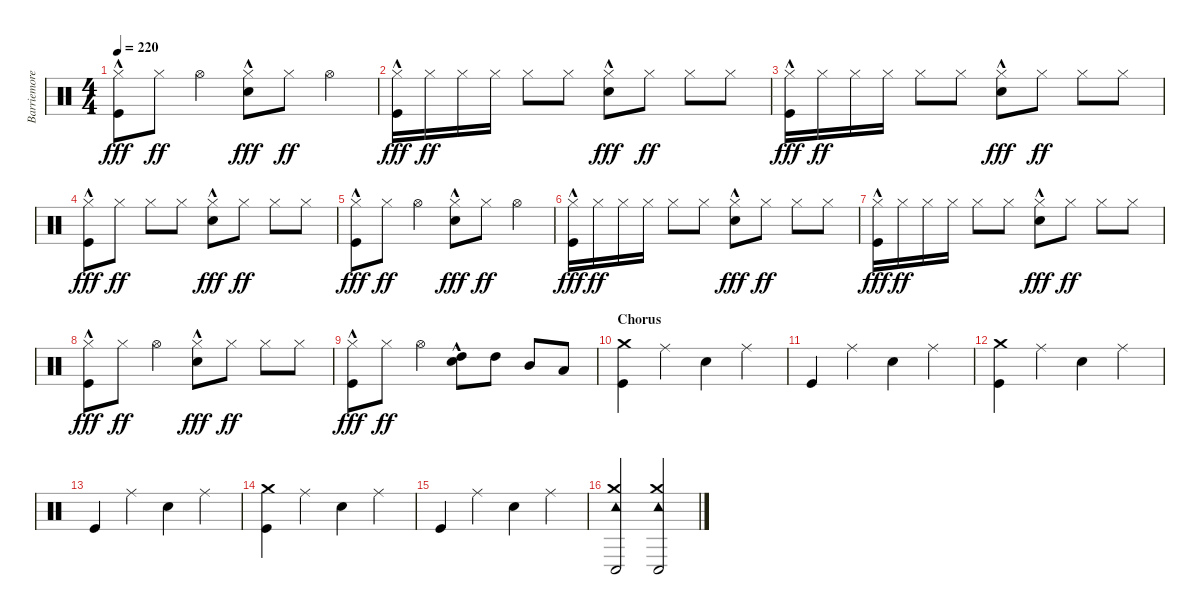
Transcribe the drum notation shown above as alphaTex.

\track ("Barriemore Barlow (Drums)" "Barriemore") {instrument percussion}
\staff {score}
\articulation defaults
\ts (4 4)
\tempo 220
\clef neutral
\ks c
("Kick (hit)"{hac} "Hi-Hat (closed)").8{dy fff} "Hi-Hat (closed)".8{dy ff} "Hi-Hat (open)".4 ("Snare (hit) 2"{hac} "Hi-Hat (closed)").8{dy fff} "Hi-Hat (closed)".8{dy ff} "Hi-Hat (open)".4 |
("Kick (hit)"{hac} "Hi-Hat (closed)").16{dy fff} "Hi-Hat (closed)".16{dy ff} "Hi-Hat (closed)".16 "Hi-Hat (closed)".16 "Hi-Hat (closed)".8 "Hi-Hat (closed)".8 ("Snare (hit) 2"{hac} "Hi-Hat (closed)").8{dy fff} "Hi-Hat (closed)".8{dy ff} "Hi-Hat (closed)".8 "Hi-Hat (closed)".8 |
("Kick (hit)"{hac} "Hi-Hat (closed)").16{dy fff} "Hi-Hat (closed)".16{dy ff} "Hi-Hat (closed)".16 "Hi-Hat (closed)".16 "Hi-Hat (closed)".8 "Hi-Hat (closed)".8 ("Snare (hit) 2"{hac} "Hi-Hat (closed)").8{dy fff} "Hi-Hat (closed)".8{dy ff} "Hi-Hat (closed)".8 "Hi-Hat (closed)".8 |
("Kick (hit)"{hac} "Hi-Hat (closed)").8{dy fff} "Hi-Hat (closed)".8{dy ff} "Hi-Hat (closed)".8 "Hi-Hat (closed)".8 ("Snare (hit) 2"{hac} "Hi-Hat (closed)").8{dy fff} "Hi-Hat (closed)".8{dy ff} "Hi-Hat (closed)".8 "Hi-Hat (closed)".8 |
("Kick (hit)"{hac} "Hi-Hat (closed)").8{dy fff} "Hi-Hat (closed)".8{dy ff} "Hi-Hat (open)".4 ("Snare (hit) 2"{hac} "Hi-Hat (closed)").8{dy fff} "Hi-Hat (closed)".8{dy ff} "Hi-Hat (open)".4 |
("Kick (hit)"{hac} "Hi-Hat (closed)").16{dy fff} "Hi-Hat (closed)".16{dy ff} "Hi-Hat (closed)".16 "Hi-Hat (closed)".16 "Hi-Hat (closed)".8 "Hi-Hat (closed)".8 ("Snare (hit) 2"{hac} "Hi-Hat (closed)").8{dy fff} "Hi-Hat (closed)".8{dy ff} "Hi-Hat (closed)".8 "Hi-Hat (closed)".8 |
("Kick (hit)"{hac} "Hi-Hat (closed)").16{dy fff} "Hi-Hat (closed)".16{dy ff} "Hi-Hat (closed)".16 "Hi-Hat (closed)".16 "Hi-Hat (closed)".8 "Hi-Hat (closed)".8 ("Snare (hit) 2"{hac} "Hi-Hat (closed)").8{dy fff} "Hi-Hat (closed)".8{dy ff} "Hi-Hat (closed)".8 "Hi-Hat (closed)".8 |
("Kick (hit)"{hac} "Hi-Hat (closed)").8{dy fff} "Hi-Hat (closed)".8{dy ff} "Hi-Hat (open)".4 ("Snare (hit) 2"{hac} "Hi-Hat (closed)").8{dy fff} "Hi-Hat (closed)".8{dy ff} "Hi-Hat (closed)".8 "Hi-Hat (closed)".8 |
("Kick (hit)"{hac} "Hi-Hat (closed)").8{dy fff} "Hi-Hat (closed)".8{dy ff} "Hi-Hat (open)".4 ("Snare (hit) 2"{hac} "High Tom (hit)").8 "High Tom (hit)".8 "Mid Tom (hit)".8 "Low Tom (hit)".8 |
\section ("" "Chorus")
("Kick (hit)" "Crash medium (hit)").4 "Ride (middle)".4 "Snare (hit) 2".4 "Ride (middle)".4 |
"Kick (hit)".4 "Ride (middle)".4 "Snare (hit) 2".4 "Ride (middle)".4 |
("Kick (hit)" "Crash medium (hit)").4 "Ride (middle)".4 "Snare (hit) 2".4 "Ride (middle)".4 |
"Kick (hit)".4 "Ride (middle)".4 "Snare (hit) 2".4 "Ride (middle)".4 |
("Kick (hit)" "Crash medium (hit)").4 "Ride (middle)".4 "Snare (hit) 2".4 "Ride (middle)".4 |
"Kick (hit)".4 "Ride (middle)".4 "Snare (hit) 2".4 "Ride (middle)".4 |
("Tambourine (hit)" "Crash medium (hit)" "Conga low (hit)").2 ("Tambourine (hit)" "Crash medium (hit)" "Conga low (hit)").2
